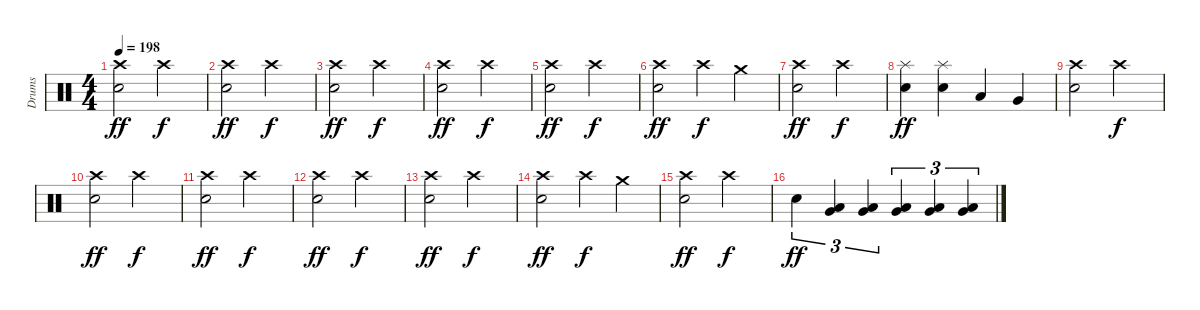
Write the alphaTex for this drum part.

\track ("Drums" "Drums") {instrument percussion}
\staff {score}
\articulation defaults
\ts (4 4)
\section ("" "")
\tempo 198
\clef neutral
\ks c
("Crash high (hit)" "Snare (hit) 2").2{dy ff volume 2} "Crash high (hit)".2{dy f} |
("Crash high (hit)" "Snare (hit) 2").2{dy ff} "Crash high (hit)".2{dy f} |
("Crash high (hit)" "Snare (hit) 2").2{dy ff} "Crash high (hit)".2{dy f} |
("Crash high (hit)" "Snare (hit) 2").2{dy ff} "Crash high (hit)".2{dy f} |
("Crash high (hit)" "Snare (hit) 2").2{dy ff volume 1} "Crash high (hit)".2{dy f} |
("Crash high (hit)" "Snare (hit) 2").2{dy ff} "Crash high (hit)".4{dy f} "Crash medium (hit)".4 |
("Crash high (hit)" "Snare (hit) 2").2{dy ff} "Crash high (hit)".2{dy f} |
("Splash (hit)" "Snare (hit) 2").4{dy ff} ("Splash (hit)" "Snare (hit) 2").4 "Low Tom (hit)".4 "Very Low Tom (hit)".4 |
("Crash high (hit)" "Snare (hit) 2").2{volume 0} "Crash high (hit)".2{dy f} |
("Crash high (hit)" "Snare (hit) 2").2{dy ff} "Crash high (hit)".2{dy f} |
("Crash high (hit)" "Snare (hit) 2").2{dy ff} "Crash high (hit)".2{dy f} |
("Crash high (hit)" "Snare (hit) 2").2{dy ff} "Crash high (hit)".2{dy f} |
("Crash high (hit)" "Snare (hit) 2").2{dy ff} "Crash high (hit)".2{dy f} |
("Crash high (hit)" "Snare (hit) 2").2{dy ff} "Crash high (hit)".4{dy f} "Crash medium (hit)".4 |
("Crash high (hit)" "Snare (hit) 2").2{dy ff} "Crash high (hit)".2{dy f} |
"Snare (hit) 2".4{tu (3 2) dy ff} ("Low Tom (hit)" "Very Low Tom (hit)").4{tu (3 2)} ("Low Tom (hit)" "Very Low Tom (hit)").4{tu (3 2)} ("Very Low Tom (hit)" "Low Floor Tom (hit)").4{tu (3 2)} ("Very Low Tom (hit)" "Low Floor Tom (hit)").4{tu (3 2)} ("Very Low Tom (hit)" "Low Floor Tom (hit)").4{tu (3 2)}
